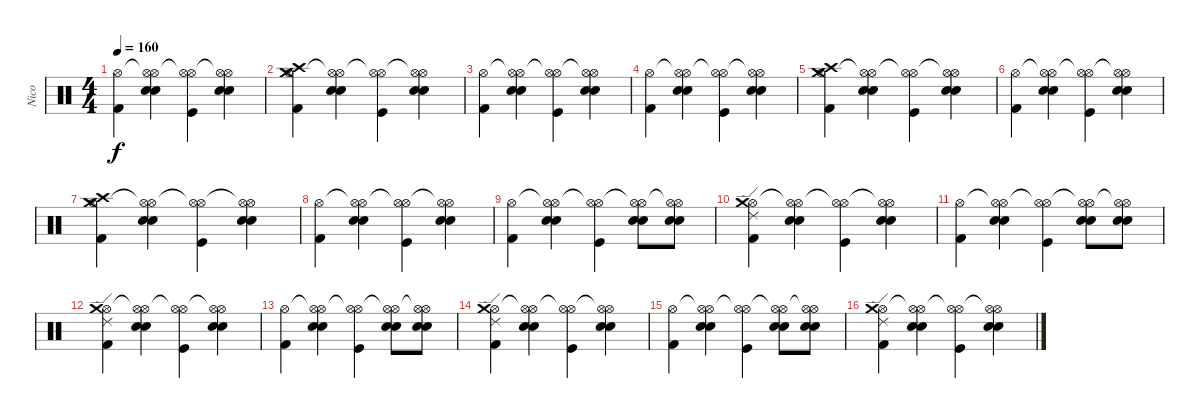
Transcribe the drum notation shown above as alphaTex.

\track ("Nico" "Nico") {instrument percussion}
\staff {score}
\articulation defaults
\ts (4 4)
\tempo 160
\clef neutral
\ks c
("Hi-Hat (open)" "Kick (hit) 2").4{dy f} ("Hi-Hat (open)"{t} "Hi-Hat (open)" "Electric Snare (hit)" "Snare (hit) 2").4 ("Hi-Hat (open)" "Hi-Hat (open)"{t} "Kick (hit)").4 ("Hi-Hat (open)"{t} "Hi-Hat (open)" "Electric Snare (hit)" "Snare (hit) 2").4 |
("Hi-Hat (open)" "Crash medium (hit)" "Crash high (hit)" "Kick (hit) 2").4 ("Hi-Hat (open)"{t} "Hi-Hat (open)" "Electric Snare (hit)" "Snare (hit) 2").4 ("Hi-Hat (open)" "Hi-Hat (open)"{t} "Kick (hit)").4 ("Hi-Hat (open)"{t} "Hi-Hat (open)" "Electric Snare (hit)" "Snare (hit) 2").4 |
("Hi-Hat (open)" "Kick (hit) 2").4 ("Hi-Hat (open)"{t} "Hi-Hat (open)" "Electric Snare (hit)" "Snare (hit) 2").4 ("Hi-Hat (open)" "Hi-Hat (open)"{t} "Kick (hit)").4 ("Hi-Hat (open)"{t} "Hi-Hat (open)" "Electric Snare (hit)" "Snare (hit) 2").4 |
("Hi-Hat (open)" "Kick (hit) 2").4 ("Hi-Hat (open)"{t} "Hi-Hat (open)" "Electric Snare (hit)" "Snare (hit) 2").4 ("Hi-Hat (open)" "Hi-Hat (open)"{t} "Kick (hit)").4 ("Hi-Hat (open)"{t} "Hi-Hat (open)" "Electric Snare (hit)" "Snare (hit) 2").4 |
("Hi-Hat (open)" "Crash medium (hit)" "Crash high (hit)" "Kick (hit) 2").4 ("Hi-Hat (open)"{t} "Hi-Hat (open)" "Electric Snare (hit)" "Snare (hit) 2").4 ("Hi-Hat (open)" "Hi-Hat (open)"{t} "Kick (hit)").4 ("Hi-Hat (open)"{t} "Hi-Hat (open)" "Electric Snare (hit)" "Snare (hit) 2").4 |
("Hi-Hat (open)" "Kick (hit) 2").4 ("Hi-Hat (open)"{t} "Hi-Hat (open)" "Electric Snare (hit)" "Snare (hit) 2").4 ("Hi-Hat (open)" "Hi-Hat (open)"{t} "Kick (hit)").4 ("Hi-Hat (open)"{t} "Hi-Hat (open)" "Electric Snare (hit)" "Snare (hit) 2").4 |
("Hi-Hat (open)" "Crash high (hit)" "Crash medium (hit)" "Kick (hit) 2").4 ("Hi-Hat (open)"{t} "Hi-Hat (open)" "Electric Snare (hit)" "Snare (hit) 2").4 ("Hi-Hat (open)" "Hi-Hat (open)"{t} "Kick (hit)").4 ("Hi-Hat (open)"{t} "Hi-Hat (open)" "Electric Snare (hit)" "Snare (hit) 2").4 |
("Hi-Hat (open)" "Kick (hit) 2").4 ("Hi-Hat (open)"{t} "Hi-Hat (open)" "Electric Snare (hit)" "Snare (hit) 2").4 ("Hi-Hat (open)" "Hi-Hat (open)"{t} "Kick (hit)").4 ("Hi-Hat (open)"{t} "Hi-Hat (open)" "Electric Snare (hit)" "Snare (hit) 2").4 |
("Hi-Hat (open)" "Kick (hit) 2").4 ("Hi-Hat (open)"{t} "Hi-Hat (open)" "Electric Snare (hit)" "Snare (hit) 2").4 ("Hi-Hat (open)" "Hi-Hat (open)"{t} "Kick (hit)").4 ("Hi-Hat (open)"{t} "Hi-Hat (open)" "Electric Snare (hit)" "Snare (hit) 2").8 ("Hi-Hat (open)"{t} "Hi-Hat (open)" "Electric Snare (hit)" "Snare (hit) 2").8 |
("Hi-Hat (open)" "Crash medium (hit)" "Ride (edge) 2" "Kick (hit) 2").4 ("Hi-Hat (open)"{t} "Hi-Hat (open)" "Electric Snare (hit)" "Snare (hit) 2").4 ("Hi-Hat (open)" "Hi-Hat (open)"{t} "Kick (hit)").4 ("Hi-Hat (open)"{t} "Hi-Hat (open)" "Electric Snare (hit)" "Snare (hit) 2").4 |
("Hi-Hat (open)" "Kick (hit) 2").4 ("Hi-Hat (open)"{t} "Hi-Hat (open)" "Electric Snare (hit)" "Snare (hit) 2").4 ("Hi-Hat (open)" "Hi-Hat (open)"{t} "Kick (hit)").4 ("Hi-Hat (open)"{t} "Hi-Hat (open)" "Electric Snare (hit)" "Snare (hit) 2").8 ("Hi-Hat (open)"{t} "Hi-Hat (open)" "Electric Snare (hit)" "Snare (hit) 2").8 |
("Hi-Hat (open)" "Crash medium (hit)" "Ride (edge) 2" "Kick (hit) 2").4 ("Hi-Hat (open)"{t} "Hi-Hat (open)" "Electric Snare (hit)" "Snare (hit) 2").4 ("Hi-Hat (open)" "Hi-Hat (open)"{t} "Kick (hit)").4 ("Hi-Hat (open)"{t} "Hi-Hat (open)" "Electric Snare (hit)" "Snare (hit) 2").4 |
("Hi-Hat (open)" "Kick (hit) 2").4 ("Hi-Hat (open)"{t} "Hi-Hat (open)" "Electric Snare (hit)" "Snare (hit) 2").4 ("Hi-Hat (open)" "Hi-Hat (open)"{t} "Kick (hit)").4 ("Hi-Hat (open)"{t} "Hi-Hat (open)" "Electric Snare (hit)" "Snare (hit) 2").8 ("Hi-Hat (open)"{t} "Hi-Hat (open)" "Electric Snare (hit)" "Snare (hit) 2").8 |
("Hi-Hat (open)" "Crash medium (hit)" "Ride (edge) 2" "Kick (hit) 2").4 ("Hi-Hat (open)"{t} "Hi-Hat (open)" "Electric Snare (hit)" "Snare (hit) 2").4 ("Hi-Hat (open)" "Hi-Hat (open)"{t} "Kick (hit)").4 ("Hi-Hat (open)"{t} "Hi-Hat (open)" "Electric Snare (hit)" "Snare (hit) 2").4 |
("Hi-Hat (open)" "Kick (hit) 2").4 ("Hi-Hat (open)"{t} "Hi-Hat (open)" "Electric Snare (hit)" "Snare (hit) 2").4 ("Hi-Hat (open)" "Hi-Hat (open)"{t} "Kick (hit)").4 ("Hi-Hat (open)"{t} "Hi-Hat (open)" "Electric Snare (hit)" "Snare (hit) 2").8 ("Hi-Hat (open)"{t} "Hi-Hat (open)" "Electric Snare (hit)" "Snare (hit) 2").8 |
("Hi-Hat (open)" "Crash medium (hit)" "Ride (edge) 2" "Kick (hit) 2").4 ("Hi-Hat (open)"{t} "Hi-Hat (open)" "Electric Snare (hit)" "Snare (hit) 2").4 ("Hi-Hat (open)" "Hi-Hat (open)"{t} "Kick (hit)").4 ("Hi-Hat (open)"{t} "Hi-Hat (open)" "Electric Snare (hit)" "Snare (hit) 2").4
